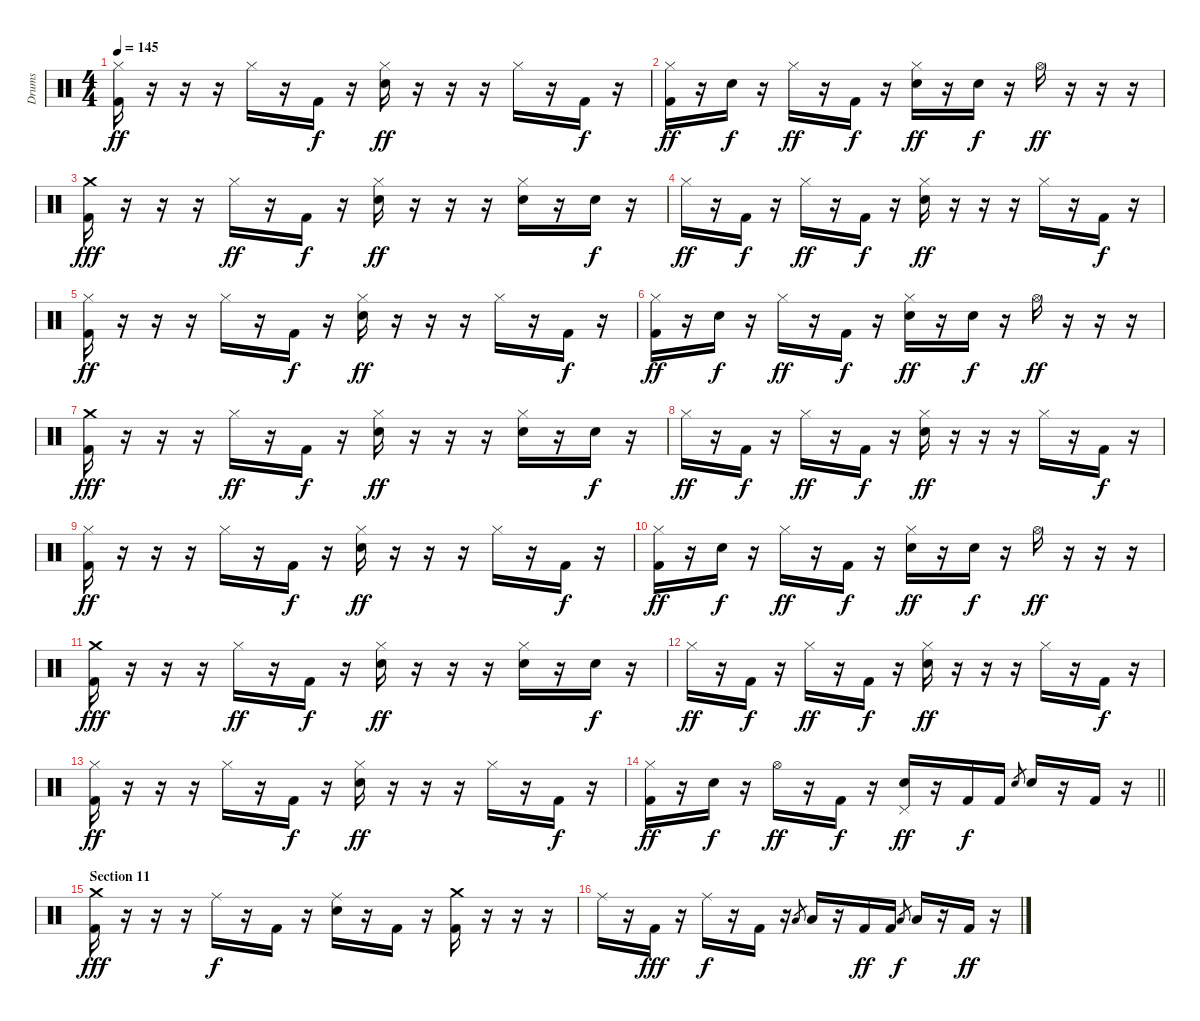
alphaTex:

\track ("Drums" "Drums") {instrument percussion}
\staff {score}
\articulation defaults
\ts (4 4)
\tempo 145
\clef neutral
\ks c
("Hi-Hat (closed)" "Kick (hit) 2").16{dy ff} r.16 r.16 r.16 "Hi-Hat (closed)".16 r.16 "Kick (hit) 2".16{dy f} r.16 ("Hi-Hat (closed)" "Electric Snare (hit)").16{dy ff} r.16 r.16 r.16 "Hi-Hat (closed)".16 r.16 "Kick (hit) 2".16{dy f} r.16 |
("Hi-Hat (closed)" "Kick (hit) 2").16{dy ff} r.16 "Electric Snare (hit)".16{dy f} r.16 "Hi-Hat (closed)".16{dy ff} r.16 "Kick (hit) 2".16{dy f} r.16 ("Hi-Hat (closed)" "Electric Snare (hit)").16{dy ff} r.16 "Electric Snare (hit)".16{dy f} r.16 "Hi-Hat (open)".16{dy ff} r.16 r.16 r.16 |
("Crash medium (hit)" "Kick (hit) 2").16{dy fff} r.16 r.16 r.16 "Hi-Hat (closed)".16{dy ff} r.16 "Kick (hit) 2".16{dy f} r.16 ("Hi-Hat (closed)" "Electric Snare (hit)").16{dy ff} r.16 r.16 r.16 ("Hi-Hat (closed)" "Electric Snare (hit)").16 r.16 "Electric Snare (hit)".16{dy f} r.16 |
"Hi-Hat (closed)".16{dy ff} r.16 "Kick (hit) 2".16{dy f} r.16 "Hi-Hat (closed)".16{dy ff} r.16 "Kick (hit) 2".16{dy f} r.16 ("Hi-Hat (closed)" "Electric Snare (hit)").16{dy ff} r.16 r.16 r.16 "Hi-Hat (closed)".16 r.16 "Kick (hit) 2".16{dy f} r.16 |
("Hi-Hat (closed)" "Kick (hit) 2").16{dy ff} r.16 r.16 r.16 "Hi-Hat (closed)".16 r.16 "Kick (hit) 2".16{dy f} r.16 ("Hi-Hat (closed)" "Electric Snare (hit)").16{dy ff} r.16 r.16 r.16 "Hi-Hat (closed)".16 r.16 "Kick (hit) 2".16{dy f} r.16 |
("Hi-Hat (closed)" "Kick (hit) 2").16{dy ff} r.16 "Electric Snare (hit)".16{dy f} r.16 "Hi-Hat (closed)".16{dy ff} r.16 "Kick (hit) 2".16{dy f} r.16 ("Hi-Hat (closed)" "Electric Snare (hit)").16{dy ff} r.16 "Electric Snare (hit)".16{dy f} r.16 "Hi-Hat (open)".16{dy ff} r.16 r.16 r.16 |
("Crash medium (hit)" "Kick (hit) 2").16{dy fff} r.16 r.16 r.16 "Hi-Hat (closed)".16{dy ff} r.16 "Kick (hit) 2".16{dy f} r.16 ("Hi-Hat (closed)" "Electric Snare (hit)").16{dy ff} r.16 r.16 r.16 ("Hi-Hat (closed)" "Electric Snare (hit)").16 r.16 "Electric Snare (hit)".16{dy f} r.16 |
"Hi-Hat (closed)".16{dy ff} r.16 "Kick (hit) 2".16{dy f} r.16 "Hi-Hat (closed)".16{dy ff} r.16 "Kick (hit) 2".16{dy f} r.16 ("Hi-Hat (closed)" "Electric Snare (hit)").16{dy ff} r.16 r.16 r.16 "Hi-Hat (closed)".16 r.16 "Kick (hit) 2".16{dy f} r.16 |
("Hi-Hat (closed)" "Kick (hit) 2").16{dy ff} r.16 r.16 r.16 "Hi-Hat (closed)".16 r.16 "Kick (hit) 2".16{dy f} r.16 ("Hi-Hat (closed)" "Electric Snare (hit)").16{dy ff} r.16 r.16 r.16 "Hi-Hat (closed)".16 r.16 "Kick (hit) 2".16{dy f} r.16 |
("Hi-Hat (closed)" "Kick (hit) 2").16{dy ff} r.16 "Electric Snare (hit)".16{dy f} r.16 "Hi-Hat (closed)".16{dy ff} r.16 "Kick (hit) 2".16{dy f} r.16 ("Hi-Hat (closed)" "Electric Snare (hit)").16{dy ff} r.16 "Electric Snare (hit)".16{dy f} r.16 "Hi-Hat (open)".16{dy ff} r.16 r.16 r.16 |
("Crash medium (hit)" "Kick (hit) 2").16{dy fff} r.16 r.16 r.16 "Hi-Hat (closed)".16{dy ff} r.16 "Kick (hit) 2".16{dy f} r.16 ("Hi-Hat (closed)" "Electric Snare (hit)").16{dy ff} r.16 r.16 r.16 ("Hi-Hat (closed)" "Electric Snare (hit)").16 r.16 "Electric Snare (hit)".16{dy f} r.16 |
"Hi-Hat (closed)".16{dy ff} r.16 "Kick (hit) 2".16{dy f} r.16 "Hi-Hat (closed)".16{dy ff} r.16 "Kick (hit) 2".16{dy f} r.16 ("Hi-Hat (closed)" "Electric Snare (hit)").16{dy ff} r.16 r.16 r.16 "Hi-Hat (closed)".16 r.16 "Kick (hit) 2".16{dy f} r.16 |
("Hi-Hat (closed)" "Kick (hit) 2").16{dy ff} r.16 r.16 r.16 "Hi-Hat (closed)".16 r.16 "Kick (hit) 2".16{dy f} r.16 ("Hi-Hat (closed)" "Electric Snare (hit)").16{dy ff} r.16 r.16 r.16 "Hi-Hat (closed)".16 r.16 "Kick (hit) 2".16{dy f} r.16 |
\barLineRight lightlight
("Hi-Hat (closed)" "Kick (hit) 2").16{dy ff} r.16 "Electric Snare (hit)".16{dy f} r.16 "Hi-Hat (open)".16{dy ff} r.16 "Kick (hit) 2".16{dy f} r.16 ("Pedal Hi-Hat (hit)" "Electric Snare (hit)").16{dy ff} r.16 "Kick (hit) 2".16{dy f} "Kick (hit) 2".16 "Electric Snare (hit)".8{gr} "Electric Snare (hit)".16 r.16 "Kick (hit) 2".16 r.16 |
\section ("" "Section 11")
("Crash medium (hit)" "Kick (hit) 2").16{dy fff} r.16 r.16 r.16 "Ride (middle)".16{dy f} r.16 "Kick (hit) 2".16 r.16 ("Ride (middle)" "Electric Snare (hit)").16 r.16 "Kick (hit) 2".16 r.16 ("Crash medium (hit)" "Kick (hit) 2").16 r.16 r.16 r.16 |
"Ride (middle)".16 r.16 "Kick (hit) 2".16{dy fff} r.16 "Ride (middle)".16{dy f} r.16 "Kick (hit) 2".16 r.16 "Low Tom (hit)".8{gr} "Low Tom (hit)".16 r.16 "Kick (hit) 2".16{dy ff} "Kick (hit) 2".16 "Low Tom (hit)".8{gr dy f} "Low Tom (hit)".16 r.16 "Kick (hit) 2".16{dy ff} r.16
